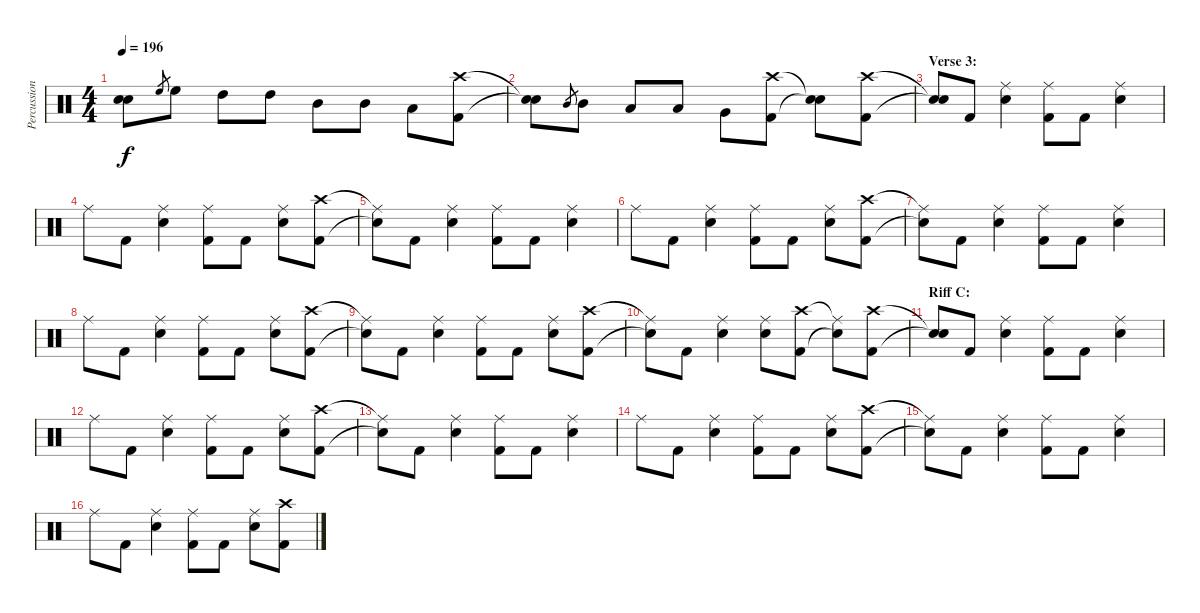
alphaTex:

\track ("Percussion" "Percussion") {instrument percussion}
\staff {score}
\articulation defaults
\ts (4 4)
\tempo 196
\clef neutral
\ks c
("Snare (hit)"{t} "Snare (hit)"{t}).8{dy f} "High Floor Tom (hit)".8{gr} "High Floor Tom (hit)".8 "High Tom (hit)".8 "High Tom (hit)".8 "Mid Tom (hit)".8 "Mid Tom (hit)".8 "Low Tom (hit)".8 ("Crash high (hit)" "Kick (hit) 2").8 |
("Snare (hit)"{t} "Snare (hit)"{t}).8 "Mid Tom (hit)".8{gr} "Mid Tom (hit)".8 "Low Tom (hit)".8 "Low Tom (hit)".8 "Very Low Tom (hit)".8 ("Crash high (hit)" "Kick (hit) 2").8 ("Snare (hit)"{t} "Snare (hit)"{t}).8 ("Crash high (hit)" "Kick (hit) 2").8 |
\section ("" "Verse 3:")
("Snare (hit)"{t} "Snare (hit)"{t}).8 "Kick (hit) 2".8 ("Ride (middle)" "Snare (hit) 2").4 ("Ride (middle)" "Kick (hit) 2").8 "Kick (hit) 2".8 ("Ride (middle)" "Snare (hit) 2").4 |
"Ride (middle)".8 "Kick (hit) 2".8 ("Ride (middle)" "Snare (hit) 2").4 ("Ride (middle)" "Kick (hit) 2").8 "Kick (hit) 2".8 ("Ride (middle)" "Snare (hit) 2").8 ("Crash high (hit)" "Kick (hit) 2").8 |
("Ride (middle)"{t} "Snare (hit)"{t}).8 "Kick (hit) 2".8 ("Ride (middle)" "Snare (hit) 2").4 ("Ride (middle)" "Kick (hit) 2").8 "Kick (hit) 2".8 ("Ride (middle)" "Snare (hit) 2").4 |
"Ride (middle)".8 "Kick (hit) 2".8 ("Ride (middle)" "Snare (hit) 2").4 ("Ride (middle)" "Kick (hit) 2").8 "Kick (hit) 2".8 ("Ride (middle)" "Snare (hit) 2").8 ("Crash high (hit)" "Kick (hit) 2").8 |
("Ride (middle)"{t} "Snare (hit)"{t}).8 "Kick (hit) 2".8 ("Ride (middle)" "Snare (hit) 2").4 ("Ride (middle)" "Kick (hit) 2").8 "Kick (hit) 2".8 ("Ride (middle)" "Snare (hit) 2").4 |
"Ride (middle)".8 "Kick (hit) 2".8 ("Ride (middle)" "Snare (hit) 2").4 ("Ride (middle)" "Kick (hit) 2").8 "Kick (hit) 2".8 ("Ride (middle)" "Snare (hit) 2").8 ("Crash high (hit)" "Kick (hit) 2").8 |
("Ride (middle)"{t} "Snare (hit)"{t}).8 "Kick (hit) 2".8 ("Ride (middle)" "Snare (hit) 2").4 ("Ride (middle)" "Kick (hit) 2").8 "Kick (hit) 2".8 ("Ride (middle)" "Snare (hit) 2").8 ("Crash high (hit)" "Kick (hit) 2").8 |
("Ride (middle)"{t} "Snare (hit)"{t}).8 "Kick (hit) 2".8 ("Ride (middle)" "Snare (hit) 2").4 ("Ride (middle)" "Snare (hit) 2").8 ("Crash high (hit)" "Kick (hit) 2").8 ("Ride (middle)"{t} "Snare (hit)"{t}).8 ("Crash high (hit)" "Kick (hit) 2").8 |
\section ("" "Riff C:")
("Snare (hit)"{t} "Snare (hit)"{t}).8 "Kick (hit) 2".8 ("Ride (middle)" "Snare (hit) 2").4 ("Ride (middle)" "Kick (hit) 2").8 "Kick (hit) 2".8 ("Ride (middle)" "Snare (hit) 2").4 |
"Ride (middle)".8 "Kick (hit) 2".8 ("Ride (middle)" "Snare (hit) 2").4 ("Ride (middle)" "Kick (hit) 2").8 "Kick (hit) 2".8 ("Ride (middle)" "Snare (hit) 2").8 ("Crash high (hit)" "Kick (hit) 2").8 |
("Ride (middle)"{t} "Snare (hit)"{t}).8 "Kick (hit) 2".8 ("Ride (middle)" "Snare (hit) 2").4 ("Ride (middle)" "Kick (hit) 2").8 "Kick (hit) 2".8 ("Ride (middle)" "Snare (hit) 2").4 |
"Ride (middle)".8 "Kick (hit) 2".8 ("Ride (middle)" "Snare (hit) 2").4 ("Ride (middle)" "Kick (hit) 2").8 "Kick (hit) 2".8 ("Ride (middle)" "Snare (hit) 2").8 ("Crash high (hit)" "Kick (hit) 2").8 |
("Ride (middle)"{t} "Snare (hit)"{t}).8 "Kick (hit) 2".8 ("Ride (middle)" "Snare (hit) 2").4 ("Ride (middle)" "Kick (hit) 2").8 "Kick (hit) 2".8 ("Ride (middle)" "Snare (hit) 2").4 |
"Ride (middle)".8 "Kick (hit) 2".8 ("Ride (middle)" "Snare (hit) 2").4 ("Ride (middle)" "Kick (hit) 2").8 "Kick (hit) 2".8 ("Ride (middle)" "Snare (hit) 2").8 ("Crash high (hit)" "Kick (hit) 2").8
